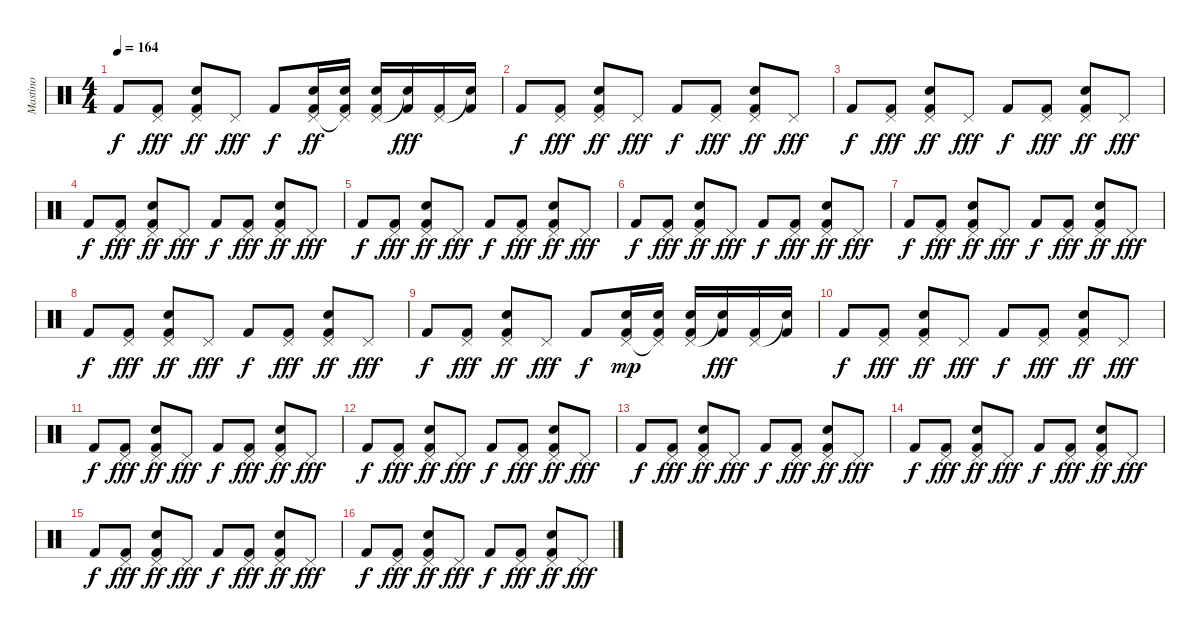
\track ("Mastino" "Mastino") {instrument percussion}
\staff {score}
\articulation defaults
\ts (4 4)
\tempo 164
\clef neutral
\ks c "Kick (hit) 2".8{dy f}
("Pedal Hi-Hat (hit)" "Kick (hit) 2").8{dy fff} ("Pedal Hi-Hat (hit)" "Electric Snare (hit)" "Kick (hit) 2").8{dy ff} "Pedal Hi-Hat (hit)".8{dy fff} "Kick (hit) 2".8{dy f} ("Pedal Hi-Hat (hit)" "Electric Snare (hit)" "Kick (hit) 2").16{dy ff} ("Pedal Hi-Hat (hit)"{t} "Electric Snare (hit)" "Kick (hit) 2").16 ("Pedal Hi-Hat (hit)" "Electric Snare (hit)" "Kick (hit) 2").16 ("Snare (hit)"{t} "Kick (hit) 2").16{dy fff} ("Pedal Hi-Hat (hit)" "Kick (hit) 2").16 ("Snare (hit)"{t} "Kick (hit) 2").16 |
"Kick (hit) 2".8{dy f} ("Pedal Hi-Hat (hit)" "Kick (hit) 2").8{dy fff} ("Pedal Hi-Hat (hit)" "Electric Snare (hit)" "Kick (hit) 2").8{dy ff} "Pedal Hi-Hat (hit)".8{dy fff} "Kick (hit) 2".8{dy f} ("Pedal Hi-Hat (hit)" "Kick (hit) 2").8{dy fff} ("Pedal Hi-Hat (hit)" "Electric Snare (hit)" "Kick (hit) 2").8{dy ff} "Pedal Hi-Hat (hit)".8{dy fff} |
"Kick (hit) 2".8{dy f} ("Pedal Hi-Hat (hit)" "Kick (hit) 2").8{dy fff} ("Pedal Hi-Hat (hit)" "Electric Snare (hit)" "Kick (hit) 2").8{dy ff} "Pedal Hi-Hat (hit)".8{dy fff} "Kick (hit) 2".8{dy f} ("Pedal Hi-Hat (hit)" "Kick (hit) 2").8{dy fff} ("Pedal Hi-Hat (hit)" "Electric Snare (hit)" "Kick (hit) 2").8{dy ff} "Pedal Hi-Hat (hit)".8{dy fff} |
"Kick (hit) 2".8{dy f} ("Pedal Hi-Hat (hit)" "Kick (hit) 2").8{dy fff} ("Pedal Hi-Hat (hit)" "Electric Snare (hit)" "Kick (hit) 2").8{dy ff} "Pedal Hi-Hat (hit)".8{dy fff} "Kick (hit) 2".8{dy f} ("Pedal Hi-Hat (hit)" "Kick (hit) 2").8{dy fff} ("Pedal Hi-Hat (hit)" "Electric Snare (hit)" "Kick (hit) 2").8{dy ff} "Pedal Hi-Hat (hit)".8{dy fff} |
"Kick (hit) 2".8{dy f} ("Pedal Hi-Hat (hit)" "Kick (hit) 2").8{dy fff} ("Pedal Hi-Hat (hit)" "Electric Snare (hit)" "Kick (hit) 2").8{dy ff} "Pedal Hi-Hat (hit)".8{dy fff} "Kick (hit) 2".8{dy f} ("Pedal Hi-Hat (hit)" "Kick (hit) 2").8{dy fff} ("Pedal Hi-Hat (hit)" "Electric Snare (hit)" "Kick (hit) 2").8{dy ff} "Pedal Hi-Hat (hit)".8{dy fff} |
"Kick (hit) 2".8{dy f} ("Pedal Hi-Hat (hit)" "Kick (hit) 2").8{dy fff} ("Pedal Hi-Hat (hit)" "Electric Snare (hit)" "Kick (hit) 2").8{dy ff} "Pedal Hi-Hat (hit)".8{dy fff} "Kick (hit) 2".8{dy f} ("Pedal Hi-Hat (hit)" "Kick (hit) 2").8{dy fff} ("Pedal Hi-Hat (hit)" "Electric Snare (hit)" "Kick (hit) 2").8{dy ff} "Pedal Hi-Hat (hit)".8{dy fff} |
"Kick (hit) 2".8{dy f} ("Pedal Hi-Hat (hit)" "Kick (hit) 2").8{dy fff} ("Pedal Hi-Hat (hit)" "Electric Snare (hit)" "Kick (hit) 2").8{dy ff} "Pedal Hi-Hat (hit)".8{dy fff} "Kick (hit) 2".8{dy f} ("Pedal Hi-Hat (hit)" "Kick (hit) 2").8{dy fff} ("Pedal Hi-Hat (hit)" "Electric Snare (hit)" "Kick (hit) 2").8{dy ff} "Pedal Hi-Hat (hit)".8{dy fff} |
"Kick (hit) 2".8{dy f} ("Pedal Hi-Hat (hit)" "Kick (hit) 2").8{dy fff} ("Pedal Hi-Hat (hit)" "Electric Snare (hit)" "Kick (hit) 2").8{dy ff} "Pedal Hi-Hat (hit)".8{dy fff} "Kick (hit) 2".8{dy f} ("Pedal Hi-Hat (hit)" "Kick (hit) 2").8{dy fff} ("Pedal Hi-Hat (hit)" "Electric Snare (hit)" "Kick (hit) 2").8{dy ff} "Pedal Hi-Hat (hit)".8{dy fff} |
"Kick (hit) 2".8{dy f} ("Pedal Hi-Hat (hit)" "Kick (hit) 2").8{dy fff} ("Pedal Hi-Hat (hit)" "Electric Snare (hit)" "Kick (hit) 2").8{dy ff} "Pedal Hi-Hat (hit)".8{dy fff} "Kick (hit) 2".8{dy f} ("Pedal Hi-Hat (hit)" "Electric Snare (hit)" "Kick (hit) 2").16{dy mp} ("Pedal Hi-Hat (hit)"{t} "Electric Snare (hit)" "Kick (hit) 2").16 ("Pedal Hi-Hat (hit)" "Electric Snare (hit)" "Kick (hit) 2").16 ("Snare (hit)"{t} "Kick (hit) 2").16{dy fff} ("Pedal Hi-Hat (hit)" "Kick (hit) 2").16 ("Snare (hit)"{t} "Kick (hit) 2").16 |
"Kick (hit) 2".8{dy f} ("Pedal Hi-Hat (hit)" "Kick (hit) 2").8{dy fff} ("Pedal Hi-Hat (hit)" "Electric Snare (hit)" "Kick (hit) 2").8{dy ff} "Pedal Hi-Hat (hit)".8{dy fff} "Kick (hit) 2".8{dy f} ("Pedal Hi-Hat (hit)" "Kick (hit) 2").8{dy fff} ("Pedal Hi-Hat (hit)" "Electric Snare (hit)" "Kick (hit) 2").8{dy ff} "Pedal Hi-Hat (hit)".8{dy fff} |
"Kick (hit) 2".8{dy f} ("Pedal Hi-Hat (hit)" "Kick (hit) 2").8{dy fff} ("Pedal Hi-Hat (hit)" "Electric Snare (hit)" "Kick (hit) 2").8{dy ff} "Pedal Hi-Hat (hit)".8{dy fff} "Kick (hit) 2".8{dy f} ("Pedal Hi-Hat (hit)" "Kick (hit) 2").8{dy fff} ("Pedal Hi-Hat (hit)" "Electric Snare (hit)" "Kick (hit) 2").8{dy ff} "Pedal Hi-Hat (hit)".8{dy fff} |
"Kick (hit) 2".8{dy f} ("Pedal Hi-Hat (hit)" "Kick (hit) 2").8{dy fff} ("Pedal Hi-Hat (hit)" "Electric Snare (hit)" "Kick (hit) 2").8{dy ff} "Pedal Hi-Hat (hit)".8{dy fff} "Kick (hit) 2".8{dy f} ("Pedal Hi-Hat (hit)" "Kick (hit) 2").8{dy fff} ("Pedal Hi-Hat (hit)" "Electric Snare (hit)" "Kick (hit) 2").8{dy ff} "Pedal Hi-Hat (hit)".8{dy fff} |
"Kick (hit) 2".8{dy f} ("Pedal Hi-Hat (hit)" "Kick (hit) 2").8{dy fff} ("Pedal Hi-Hat (hit)" "Electric Snare (hit)" "Kick (hit) 2").8{dy ff} "Pedal Hi-Hat (hit)".8{dy fff} "Kick (hit) 2".8{dy f} ("Pedal Hi-Hat (hit)" "Kick (hit) 2").8{dy fff} ("Pedal Hi-Hat (hit)" "Electric Snare (hit)" "Kick (hit) 2").8{dy ff} "Pedal Hi-Hat (hit)".8{dy fff} |
"Kick (hit) 2".8{dy f} ("Pedal Hi-Hat (hit)" "Kick (hit) 2").8{dy fff} ("Pedal Hi-Hat (hit)" "Electric Snare (hit)" "Kick (hit) 2").8{dy ff} "Pedal Hi-Hat (hit)".8{dy fff} "Kick (hit) 2".8{dy f} ("Pedal Hi-Hat (hit)" "Kick (hit) 2").8{dy fff} ("Pedal Hi-Hat (hit)" "Electric Snare (hit)" "Kick (hit) 2").8{dy ff} "Pedal Hi-Hat (hit)".8{dy fff} |
"Kick (hit) 2".8{dy f} ("Pedal Hi-Hat (hit)" "Kick (hit) 2").8{dy fff} ("Pedal Hi-Hat (hit)" "Electric Snare (hit)" "Kick (hit) 2").8{dy ff} "Pedal Hi-Hat (hit)".8{dy fff} "Kick (hit) 2".8{dy f} ("Pedal Hi-Hat (hit)" "Kick (hit) 2").8{dy fff} ("Pedal Hi-Hat (hit)" "Electric Snare (hit)" "Kick (hit) 2").8{dy ff} "Pedal Hi-Hat (hit)".8{dy fff} |
"Kick (hit) 2".8{dy f} ("Pedal Hi-Hat (hit)" "Kick (hit) 2").8{dy fff} ("Pedal Hi-Hat (hit)" "Electric Snare (hit)" "Kick (hit) 2").8{dy ff} "Pedal Hi-Hat (hit)".8{dy fff} "Kick (hit) 2".8{dy f} ("Pedal Hi-Hat (hit)" "Kick (hit) 2").8{dy fff} ("Pedal Hi-Hat (hit)" "Electric Snare (hit)" "Kick (hit) 2").8{dy ff} "Pedal Hi-Hat (hit)".8{dy fff}
